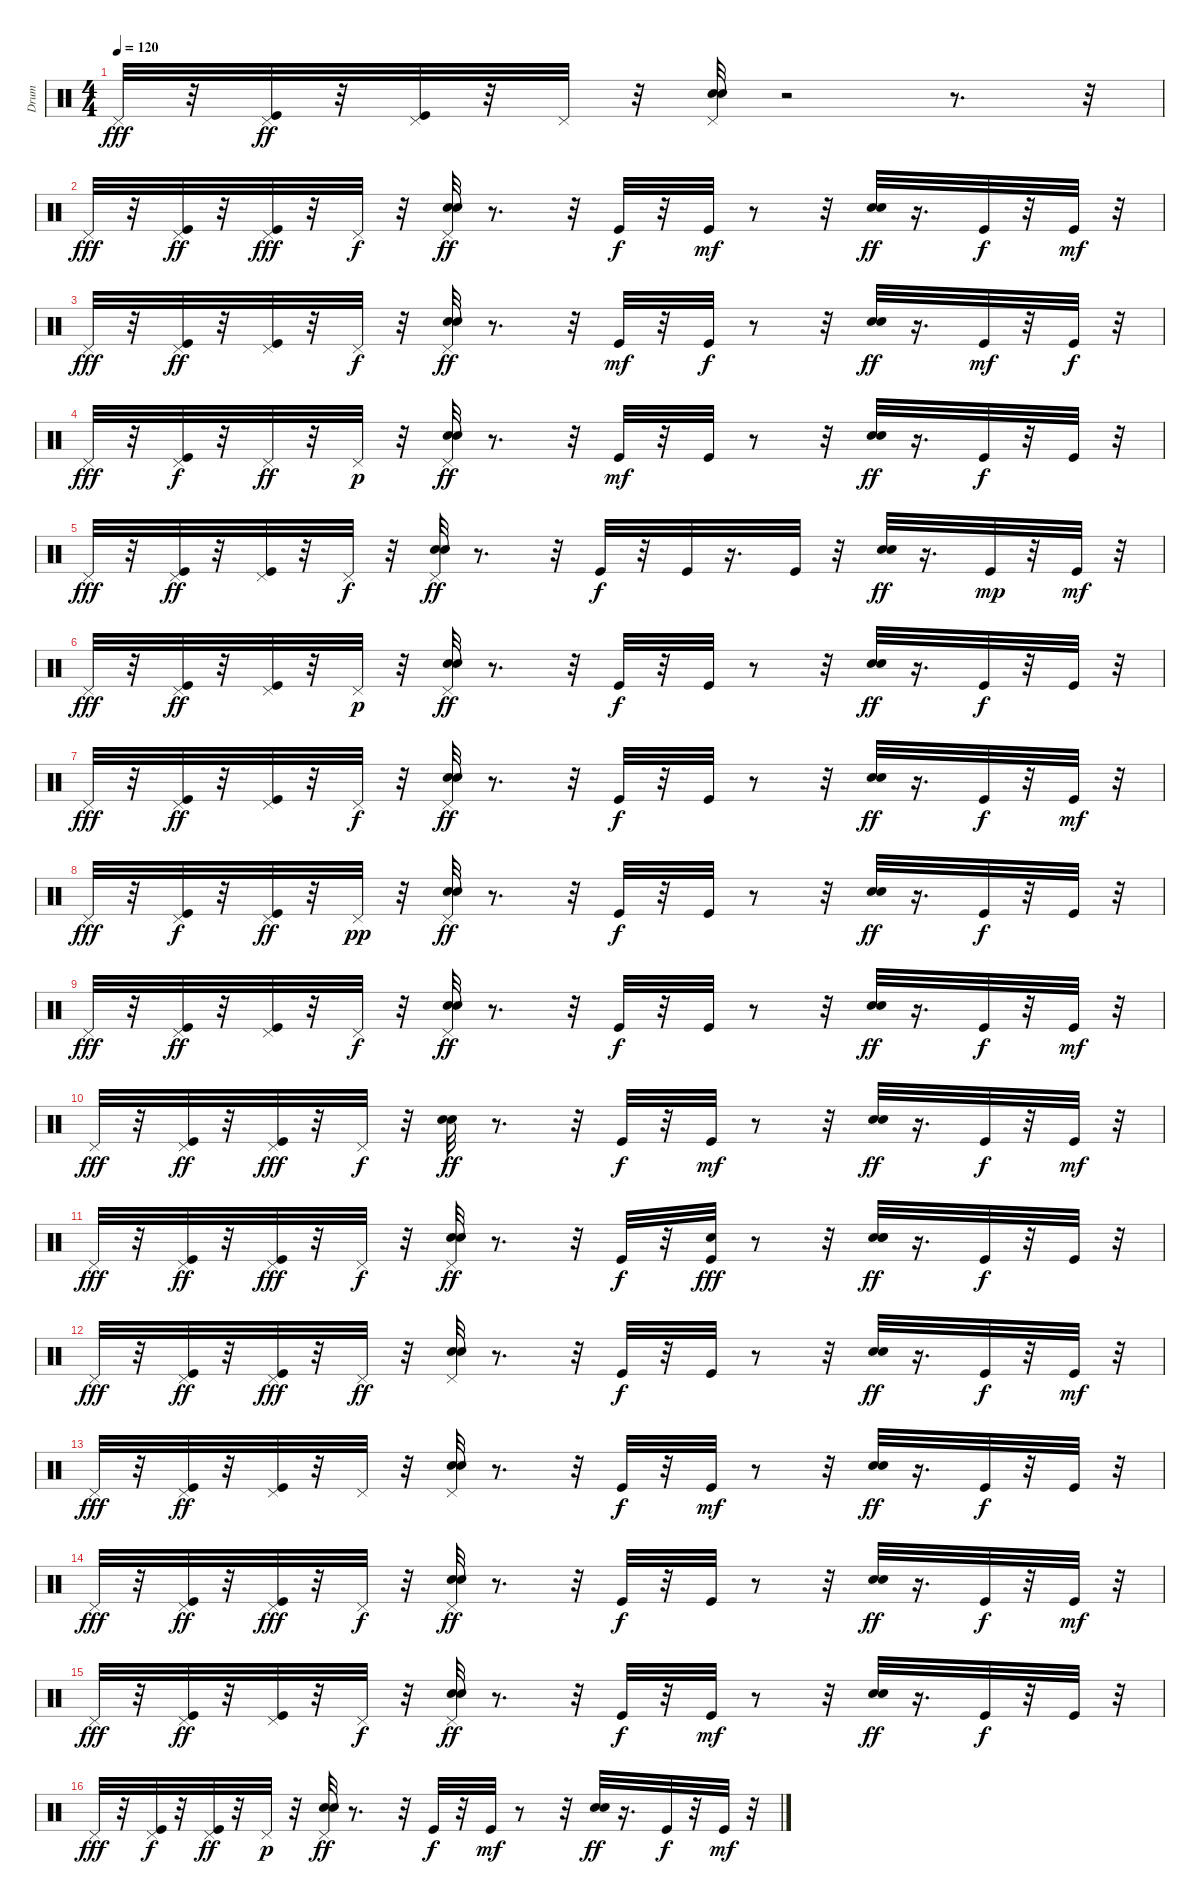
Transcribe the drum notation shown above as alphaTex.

\track ("Drum" "Drum") {instrument percussion}
\staff {score}
\articulation defaults
\ts (4 4)
\tempo 120
\clef neutral
\ks c "Pedal Hi-Hat (hit)".32{dy fff}
r.32 ("Kick (hit)" "Pedal Hi-Hat (hit)").32{dy ff} r.32 ("Kick (hit)" "Pedal Hi-Hat (hit)").32 r.32 "Pedal Hi-Hat (hit)".32 r.32 ("Snare (hit) 2" "Electric Snare (hit)" "Pedal Hi-Hat (hit)").32 r.2 r.8{d} r.32 |
"Pedal Hi-Hat (hit)".32{dy fff} r.32 ("Kick (hit)" "Pedal Hi-Hat (hit)").32{dy ff} r.32 ("Kick (hit)" "Pedal Hi-Hat (hit)").32{dy fff} r.32 "Pedal Hi-Hat (hit)".32{dy f} r.32 ("Snare (hit) 2" "Electric Snare (hit)" "Pedal Hi-Hat (hit)").32{dy ff} r.8{d} r.32 "Kick (hit)".32{dy f} r.32 "Kick (hit)".32{dy mf} r.8 r.32 ("Snare (hit) 2" "Electric Snare (hit)").32{dy ff} r.16{d} "Kick (hit)".32{dy f} r.32 "Kick (hit)".32{dy mf} r.32 |
"Pedal Hi-Hat (hit)".32{dy fff} r.32 ("Kick (hit)" "Pedal Hi-Hat (hit)").32{dy ff} r.32 ("Kick (hit)" "Pedal Hi-Hat (hit)").32 r.32 "Pedal Hi-Hat (hit)".32{dy f} r.32 ("Snare (hit) 2" "Electric Snare (hit)" "Pedal Hi-Hat (hit)").32{dy ff} r.8{d} r.32 "Kick (hit)".32{dy mf} r.32 "Kick (hit)".32{dy f} r.8 r.32 ("Snare (hit) 2" "Electric Snare (hit)").32{dy ff} r.16{d} "Kick (hit)".32{dy mf} r.32 "Kick (hit)".32{dy f} r.32 |
"Pedal Hi-Hat (hit)".32{dy fff} r.32 ("Pedal Hi-Hat (hit)" "Kick (hit)").32{dy f} r.32 "Pedal Hi-Hat (hit)".32{dy ff} r.32 "Pedal Hi-Hat (hit)".32{dy p} r.32 ("Pedal Hi-Hat (hit)" "Snare (hit) 2" "Electric Snare (hit)").32{dy ff} r.8{d} r.32 "Kick (hit)".32{dy mf} r.32 "Kick (hit)".32 r.8 r.32 ("Snare (hit) 2" "Electric Snare (hit)").32{dy ff} r.16{d} "Kick (hit)".32{dy f} r.32 "Kick (hit)".32 r.32 |
"Pedal Hi-Hat (hit)".32{dy fff} r.32 ("Pedal Hi-Hat (hit)" "Kick (hit)").32{dy ff} r.32 ("Kick (hit)" "Pedal Hi-Hat (hit)").32 r.32 "Pedal Hi-Hat (hit)".32{dy f} r.32 ("Snare (hit) 2" "Electric Snare (hit)" "Pedal Hi-Hat (hit)").32{dy ff} r.8{d} r.32 "Kick (hit)".32{dy f} r.32 "Kick (hit)".32 r.16{d} "Kick (hit)".32 r.32 ("Electric Snare (hit)" "Snare (hit) 2").32{dy ff} r.16{d} "Kick (hit)".32{dy mp} r.32 "Kick (hit)".32{dy mf} r.32 |
"Pedal Hi-Hat (hit)".32{dy fff} r.32 ("Pedal Hi-Hat (hit)" "Kick (hit)").32{dy ff} r.32 ("Kick (hit)" "Pedal Hi-Hat (hit)").32 r.32 "Pedal Hi-Hat (hit)".32{dy p} r.32 ("Snare (hit) 2" "Electric Snare (hit)" "Pedal Hi-Hat (hit)").32{dy ff} r.8{d} r.32 "Kick (hit)".32{dy f} r.32 "Kick (hit)".32 r.8 r.32 ("Snare (hit) 2" "Electric Snare (hit)").32{dy ff} r.16{d} "Kick (hit)".32{dy f} r.32 "Kick (hit)".32 r.32 |
"Pedal Hi-Hat (hit)".32{dy fff} r.32 ("Kick (hit)" "Pedal Hi-Hat (hit)").32{dy ff} r.32 ("Kick (hit)" "Pedal Hi-Hat (hit)").32 r.32 "Pedal Hi-Hat (hit)".32{dy f} r.32 ("Snare (hit) 2" "Electric Snare (hit)" "Pedal Hi-Hat (hit)").32{dy ff} r.8{d} r.32 "Kick (hit)".32{dy f} r.32 "Kick (hit)".32 r.8 r.32 ("Snare (hit) 2" "Electric Snare (hit)").32{dy ff} r.16{d} "Kick (hit)".32{dy f} r.32 "Kick (hit)".32{dy mf} r.32 |
"Pedal Hi-Hat (hit)".32{dy fff} r.32 ("Pedal Hi-Hat (hit)" "Kick (hit)").32{dy f} r.32 ("Kick (hit)" "Pedal Hi-Hat (hit)").32{dy ff} r.32 "Pedal Hi-Hat (hit)".32{dy pp} r.32 ("Snare (hit) 2" "Electric Snare (hit)" "Pedal Hi-Hat (hit)").32{dy ff} r.8{d} r.32 "Kick (hit)".32{dy f} r.32 "Kick (hit)".32 r.8 r.32 ("Electric Snare (hit)" "Snare (hit) 2").32{dy ff} r.16{d} "Kick (hit)".32{dy f} r.32 "Kick (hit)".32 r.32 |
"Pedal Hi-Hat (hit)".32{dy fff} r.32 ("Kick (hit)" "Pedal Hi-Hat (hit)").32{dy ff} r.32 ("Kick (hit)" "Pedal Hi-Hat (hit)").32 r.32 "Pedal Hi-Hat (hit)".32{dy f} r.32 ("Snare (hit) 2" "Electric Snare (hit)" "Pedal Hi-Hat (hit)").32{dy ff} r.8{d} r.32 "Kick (hit)".32{dy f} r.32 "Kick (hit)".32 r.8 r.32 ("Snare (hit) 2" "Electric Snare (hit)").32{dy ff} r.16{d} "Kick (hit)".32{dy f} r.32 "Kick (hit)".32{dy mf} r.32 |
"Pedal Hi-Hat (hit)".32{dy fff} r.32 ("Kick (hit)" "Pedal Hi-Hat (hit)").32{dy ff} r.32 ("Kick (hit)" "Pedal Hi-Hat (hit)").32{dy fff} r.32 "Pedal Hi-Hat (hit)".32{dy f} r.32 ("Snare (hit) 2" "Electric Snare (hit)").32{dy ff} r.8{d} r.32 "Kick (hit)".32{dy f} r.32 "Kick (hit)".32{dy mf} r.8 r.32 ("Snare (hit) 2" "Electric Snare (hit)").32{dy ff} r.16{d} "Kick (hit)".32{dy f} r.32 "Kick (hit)".32{dy mf} r.32 |
"Pedal Hi-Hat (hit)".32{dy fff} r.32 ("Kick (hit)" "Pedal Hi-Hat (hit)").32{dy ff} r.32 ("Kick (hit)" "Pedal Hi-Hat (hit)").32{dy fff} r.32 "Pedal Hi-Hat (hit)".32{dy f} r.32 ("Snare (hit) 2" "Electric Snare (hit)" "Pedal Hi-Hat (hit)").32{dy ff} r.8{d} r.32 "Kick (hit)".32{dy f} r.32 ("Kick (hit)" "Hand Clap (hit)").32{dy fff} r.8 r.32 ("Hand Clap (hit)" "Snare (hit) 2" "Electric Snare (hit)").32{dy ff} r.16{d} "Kick (hit)".32{dy f} r.32 "Kick (hit)".32 r.32 |
"Pedal Hi-Hat (hit)".32{dy fff} r.32 ("Kick (hit)" "Pedal Hi-Hat (hit)").32{dy ff} r.32 ("Kick (hit)" "Pedal Hi-Hat (hit)").32{dy fff} r.32 "Pedal Hi-Hat (hit)".32{dy ff} r.32 ("Snare (hit) 2" "Electric Snare (hit)" "Pedal Hi-Hat (hit)").32 r.8{d} r.32 "Kick (hit)".32{dy f} r.32 "Kick (hit)".32 r.8 r.32 ("Snare (hit) 2" "Electric Snare (hit)").32{dy ff} r.16{d} "Kick (hit)".32{dy f} r.32 "Kick (hit)".32{dy mf} r.32 |
"Pedal Hi-Hat (hit)".32{dy fff} r.32 ("Kick (hit)" "Pedal Hi-Hat (hit)").32{dy ff} r.32 ("Kick (hit)" "Pedal Hi-Hat (hit)").32 r.32 "Pedal Hi-Hat (hit)".32 r.32 ("Electric Snare (hit)" "Snare (hit) 2" "Pedal Hi-Hat (hit)").32 r.8{d} r.32 "Kick (hit)".32{dy f} r.32 "Kick (hit)".32{dy mf} r.8 r.32 ("Electric Snare (hit)" "Snare (hit) 2").32{dy ff} r.16{d} "Kick (hit)".32{dy f} r.32 "Kick (hit)".32 r.32 |
"Pedal Hi-Hat (hit)".32{dy fff} r.32 ("Kick (hit)" "Pedal Hi-Hat (hit)").32{dy ff} r.32 ("Kick (hit)" "Pedal Hi-Hat (hit)").32{dy fff} r.32 "Pedal Hi-Hat (hit)".32{dy f} r.32 ("Electric Snare (hit)" "Snare (hit) 2" "Pedal Hi-Hat (hit)").32{dy ff} r.8{d} r.32 "Kick (hit)".32{dy f} r.32 "Kick (hit)".32 r.8 r.32 ("Snare (hit) 2" "Electric Snare (hit)").32{dy ff} r.16{d} "Kick (hit)".32{dy f} r.32 "Kick (hit)".32{dy mf} r.32 |
"Pedal Hi-Hat (hit)".32{dy fff} r.32 ("Kick (hit)" "Pedal Hi-Hat (hit)").32{dy ff} r.32 ("Kick (hit)" "Pedal Hi-Hat (hit)").32 r.32 "Pedal Hi-Hat (hit)".32{dy f} r.32 ("Snare (hit) 2" "Electric Snare (hit)" "Pedal Hi-Hat (hit)").32{dy ff} r.8{d} r.32 "Kick (hit)".32{dy f} r.32 "Kick (hit)".32{dy mf} r.8 r.32 ("Snare (hit) 2" "Electric Snare (hit)").32{dy ff} r.16{d} "Kick (hit)".32{dy f} r.32 "Kick (hit)".32 r.32 |
"Pedal Hi-Hat (hit)".32{dy fff} r.32 ("Kick (hit)" "Pedal Hi-Hat (hit)").32{dy f} r.32 ("Kick (hit)" "Pedal Hi-Hat (hit)").32{dy ff} r.32 "Pedal Hi-Hat (hit)".32{dy p} r.32 ("Pedal Hi-Hat (hit)" "Snare (hit) 2" "Electric Snare (hit)").32{dy ff} r.8{d} r.32 "Kick (hit)".32{dy f} r.32 "Kick (hit)".32{dy mf} r.8 r.32 ("Snare (hit) 2" "Electric Snare (hit)").32{dy ff} r.16{d} "Kick (hit)".32{dy f} r.32 "Kick (hit)".32{dy mf} r.32
